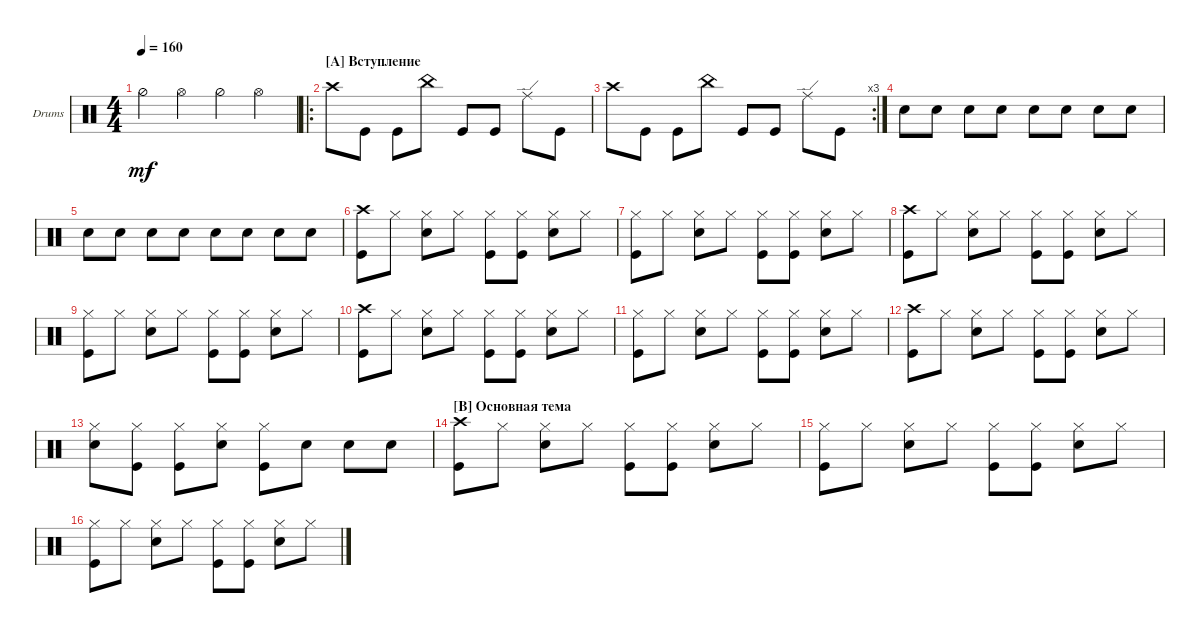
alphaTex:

\bracketExtendMode groupsimilarinstruments
\firstSystemTrackNameOrientation horizontal
\otherSystemsTrackNameOrientation horizontal
\track ("Drumkit" "Drums") {instrument percussion}
\staff {score}
\articulation defaults
\ts (4 4)
\tempo 160
\clef neutral
\ks c "Hi-Hat (half)".4{dy mf} "Hi-Hat (open)".4 "Hi-Hat (half)".4 "Hi-Hat (open)".4
|
\ro
\section ("A" "Вступление")
"Crash high (hit)".8 "Kick (hit)".8 "Kick (hit)".8 "China (hit)".8 "Kick (hit)".8 "Kick (hit)".8 "Ride (edge)".8 "Kick (hit)".8 |
\rc 3 "Crash high (hit)".8 "Kick (hit)".8 "Kick (hit)".8 "China (hit)".8 "Kick (hit)".8 "Kick (hit)".8 "Ride (edge)".8 "Kick (hit)".8
|
"Snare (hit) 2".8 "Snare (hit) 2".8 "Snare (hit) 2".8 "Snare (hit) 2".8 "Snare (hit) 2".8 "Snare (hit) 2".8 "Snare (hit) 2".8 "Snare (hit) 2".8 |
"Snare (hit) 2".8 "Snare (hit) 2".8 "Snare (hit) 2".8 "Snare (hit) 2".8 "Snare (hit) 2".8 "Snare (hit) 2".8 "Snare (hit) 2".8 "Snare (hit) 2".8 |
("Kick (hit)" "Crash high (hit)").8 "Hi-Hat (closed)".8 ("Hi-Hat (closed)" "Snare (hit) 2").8 "Hi-Hat (closed)".8 ("Kick (hit)" "Hi-Hat (closed)").8 ("Hi-Hat (closed)" "Kick (hit)").8 ("Hi-Hat (closed)" "Snare (hit) 2").8 "Hi-Hat (closed)".8 |
("Kick (hit)" "Hi-Hat (closed)").8 "Hi-Hat (closed)".8 ("Hi-Hat (closed)" "Snare (hit) 2").8 "Hi-Hat (closed)".8 ("Kick (hit)" "Hi-Hat (closed)").8 ("Hi-Hat (closed)" "Kick (hit)").8 ("Hi-Hat (closed)" "Snare (hit) 2").8 "Hi-Hat (closed)".8 |
("Kick (hit)" "Crash high (hit)").8 "Hi-Hat (closed)".8 ("Hi-Hat (closed)" "Snare (hit) 2").8 "Hi-Hat (closed)".8 ("Kick (hit)" "Hi-Hat (closed)").8 ("Hi-Hat (closed)" "Kick (hit)").8 ("Hi-Hat (closed)" "Snare (hit) 2").8 "Hi-Hat (closed)".8 |
("Kick (hit)" "Hi-Hat (closed)").8 "Hi-Hat (closed)".8 ("Hi-Hat (closed)" "Snare (hit) 2").8 "Hi-Hat (closed)".8 ("Kick (hit)" "Hi-Hat (closed)").8 ("Hi-Hat (closed)" "Kick (hit)").8 ("Hi-Hat (closed)" "Snare (hit) 2").8 "Hi-Hat (closed)".8 |
("Kick (hit)" "Crash high (hit)").8 "Hi-Hat (closed)".8 ("Hi-Hat (closed)" "Snare (hit) 2").8 "Hi-Hat (closed)".8 ("Kick (hit)" "Hi-Hat (closed)").8 ("Hi-Hat (closed)" "Kick (hit)").8 ("Hi-Hat (closed)" "Snare (hit) 2").8 "Hi-Hat (closed)".8 |
("Kick (hit)" "Hi-Hat (closed)").8 "Hi-Hat (closed)".8 ("Hi-Hat (closed)" "Snare (hit) 2").8 "Hi-Hat (closed)".8 ("Kick (hit)" "Hi-Hat (closed)").8 ("Hi-Hat (closed)" "Kick (hit)").8 ("Hi-Hat (closed)" "Snare (hit) 2").8 "Hi-Hat (closed)".8 |
("Kick (hit)" "Crash high (hit)").8 "Hi-Hat (closed)".8 ("Hi-Hat (closed)" "Snare (hit) 2").8 "Hi-Hat (closed)".8 ("Kick (hit)" "Hi-Hat (closed)").8 ("Hi-Hat (closed)" "Kick (hit)").8 ("Hi-Hat (closed)" "Snare (hit) 2").8 "Hi-Hat (closed)".8 |
("Hi-Hat (closed)" "Snare (hit) 2").8 ("Hi-Hat (closed)" "Kick (hit)").8 ("Hi-Hat (closed)" "Kick (hit)").8 ("Hi-Hat (closed)" "Snare (hit) 2").8 ("Kick (hit)" "Hi-Hat (closed)").8 "Snare (hit) 2".8 "Snare (hit) 2".8 "Snare (hit) 2".8 |
\section ("B" "Основная тема")
("Kick (hit)" "Crash high (hit)").8 "Hi-Hat (closed)".8 ("Hi-Hat (closed)" "Snare (hit) 2").8 "Hi-Hat (closed)".8 ("Kick (hit)" "Hi-Hat (closed)").8 ("Hi-Hat (closed)" "Kick (hit)").8 ("Hi-Hat (closed)" "Snare (hit) 2").8 "Hi-Hat (closed)".8 |
("Kick (hit)" "Hi-Hat (closed)").8 "Hi-Hat (closed)".8 ("Hi-Hat (closed)" "Snare (hit) 2").8 "Hi-Hat (closed)".8 ("Kick (hit)" "Hi-Hat (closed)").8 ("Hi-Hat (closed)" "Kick (hit)").8 ("Hi-Hat (closed)" "Snare (hit) 2").8 "Hi-Hat (closed)".8 |
("Kick (hit)" "Hi-Hat (closed)").8 "Hi-Hat (closed)".8 ("Hi-Hat (closed)" "Snare (hit) 2").8 "Hi-Hat (closed)".8 ("Kick (hit)" "Hi-Hat (closed)").8 ("Hi-Hat (closed)" "Kick (hit)").8 ("Hi-Hat (closed)" "Snare (hit) 2").8 "Hi-Hat (closed)".8
